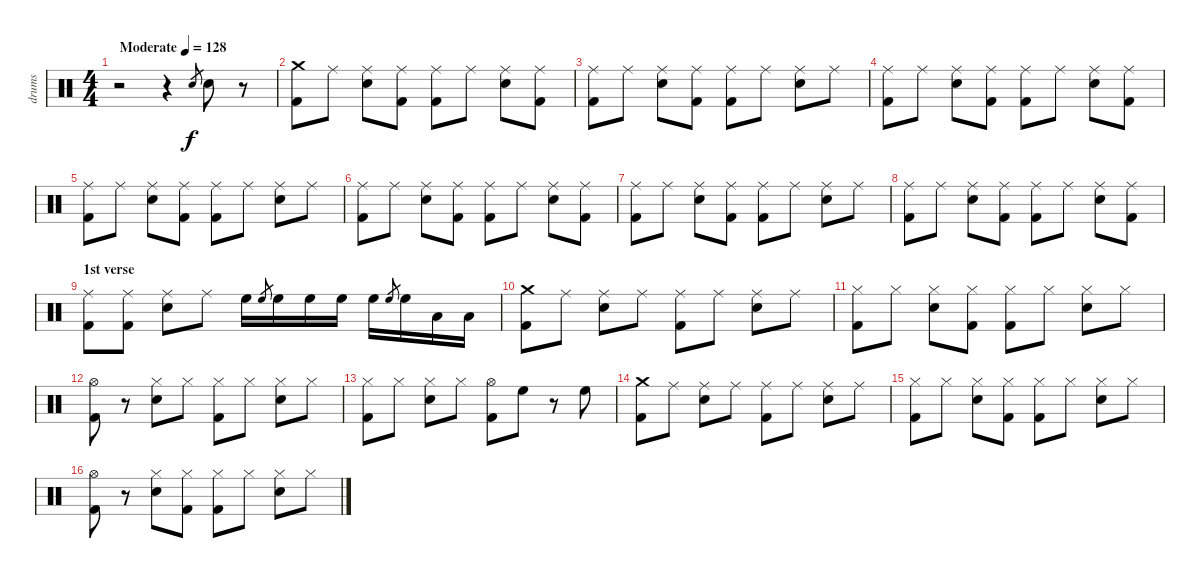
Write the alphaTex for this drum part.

\track ("drums" "drums") {instrument percussion}
\staff {score}
\articulation defaults
\ts (4 4)
\tempo (128 "Moderate")
\clef neutral
\ks c
r.2{dy f} r.4 "Snare (hit) 2".8{gr} "Snare (hit) 2".8 r.8 |
("Crash medium (hit)" "Kick (hit) 2").8 "Ride (middle)".8 ("Ride (middle)" "Snare (hit) 2").8 ("Ride (middle)" "Kick (hit) 2").8 ("Ride (middle)" "Kick (hit) 2").8 "Ride (middle)".8 ("Ride (middle)" "Snare (hit) 2").8 ("Ride (middle)" "Kick (hit) 2").8 |
("Ride (middle)" "Kick (hit) 2").8 "Ride (middle)".8 ("Ride (middle)" "Snare (hit) 2").8 ("Ride (middle)" "Kick (hit) 2").8 ("Ride (middle)" "Kick (hit) 2").8 "Ride (middle)".8 ("Ride (middle)" "Snare (hit) 2").8 "Ride (middle)".8 |
("Ride (middle)" "Kick (hit) 2").8 "Ride (middle)".8 ("Ride (middle)" "Snare (hit) 2").8 ("Ride (middle)" "Kick (hit) 2").8 ("Ride (middle)" "Kick (hit) 2").8 "Ride (middle)".8 ("Ride (middle)" "Snare (hit) 2").8 ("Ride (middle)" "Kick (hit) 2").8 |
("Ride (middle)" "Kick (hit) 2").8 "Ride (middle)".8 ("Ride (middle)" "Snare (hit) 2").8 ("Ride (middle)" "Kick (hit) 2").8 ("Ride (middle)" "Kick (hit) 2").8 "Ride (middle)".8 ("Ride (middle)" "Snare (hit) 2").8 "Ride (middle)".8 |
("Ride (middle)" "Kick (hit) 2").8 "Ride (middle)".8 ("Ride (middle)" "Snare (hit) 2").8 ("Ride (middle)" "Kick (hit) 2").8 ("Ride (middle)" "Kick (hit) 2").8 "Ride (middle)".8 ("Ride (middle)" "Snare (hit) 2").8 ("Ride (middle)" "Kick (hit) 2").8 |
("Ride (middle)" "Kick (hit) 2").8 "Ride (middle)".8 ("Ride (middle)" "Snare (hit) 2").8 ("Ride (middle)" "Kick (hit) 2").8 ("Ride (middle)" "Kick (hit) 2").8 "Ride (middle)".8 ("Ride (middle)" "Snare (hit) 2").8 "Ride (middle)".8 |
("Ride (middle)" "Kick (hit) 2").8 "Ride (middle)".8 ("Ride (middle)" "Snare (hit) 2").8 ("Ride (middle)" "Kick (hit) 2").8 ("Ride (middle)" "Kick (hit) 2").8 "Ride (middle)".8 ("Ride (middle)" "Snare (hit) 2").8 ("Ride (middle)" "Kick (hit) 2").8 |
\section ("" "1st verse")
("Ride (middle)" "Kick (hit) 2").8 ("Ride (middle)" "Kick (hit) 2").8 ("Ride (middle)" "Snare (hit) 2").8 "Ride (middle)".8 "High Floor Tom (hit)".16 "High Floor Tom (hit)".8{gr} "High Floor Tom (hit)".16 "High Floor Tom (hit)".16 "High Floor Tom (hit)".16 "High Floor Tom (hit)".16 "High Floor Tom (hit)".8{gr} "High Floor Tom (hit)".16 "Low Floor Tom (hit)".16 "Low Floor Tom (hit)".16 |
("Crash medium (hit)" "Kick (hit) 2").8 "Ride (middle)".8 ("Ride (middle)" "Snare (hit) 2").8 "Ride (middle)".8 ("Ride (middle)" "Kick (hit) 2").8 "Ride (middle)".8 ("Ride (middle)" "Snare (hit) 2").8 "Ride (middle)".8 |
("Hi-Hat (closed)" "Kick (hit) 2").8 "Hi-Hat (closed)".8 ("Hi-Hat (closed)" "Snare (hit) 2").8 ("Hi-Hat (closed)" "Kick (hit) 2").8 ("Hi-Hat (closed)" "Kick (hit) 2").8 "Hi-Hat (closed)".8 ("Hi-Hat (closed)" "Snare (hit) 2").8 "Hi-Hat (closed)".8 |
("Hi-Hat (open)" "Kick (hit) 2").8 r.8 ("Hi-Hat (closed)" "Snare (hit) 2").8 "Hi-Hat (closed)".8 ("Hi-Hat (closed)" "Kick (hit) 2").8 "Hi-Hat (closed)".8 ("Hi-Hat (closed)" "Snare (hit) 2").8 "Hi-Hat (closed)".8 |
("Hi-Hat (closed)" "Kick (hit) 2").8 "Hi-Hat (closed)".8 ("Hi-Hat (closed)" "Snare (hit) 2").8 "Hi-Hat (closed)".8 ("Hi-Hat (open)" "Kick (hit) 2").8 "High Floor Tom (hit)".8 r.8 "High Floor Tom (hit)".8 |
("Crash medium (hit)" "Kick (hit) 2").8 "Ride (middle)".8 ("Ride (middle)" "Snare (hit) 2").8 "Ride (middle)".8 ("Ride (middle)" "Kick (hit) 2").8 "Ride (middle)".8 ("Ride (middle)" "Snare (hit) 2").8 "Ride (middle)".8 |
("Hi-Hat (closed)" "Kick (hit) 2").8 "Hi-Hat (closed)".8 ("Hi-Hat (closed)" "Snare (hit) 2").8 ("Hi-Hat (closed)" "Kick (hit) 2").8 ("Hi-Hat (closed)" "Kick (hit) 2").8 "Hi-Hat (closed)".8 ("Hi-Hat (closed)" "Snare (hit) 2").8 "Hi-Hat (closed)".8 |
("Hi-Hat (open)" "Kick (hit) 2").8 r.8 ("Hi-Hat (closed)" "Snare (hit) 2").8 ("Hi-Hat (closed)" "Kick (hit) 2").8 ("Hi-Hat (closed)" "Kick (hit) 2").8 "Hi-Hat (closed)".8 ("Hi-Hat (closed)" "Snare (hit) 2").8 "Hi-Hat (closed)".8
